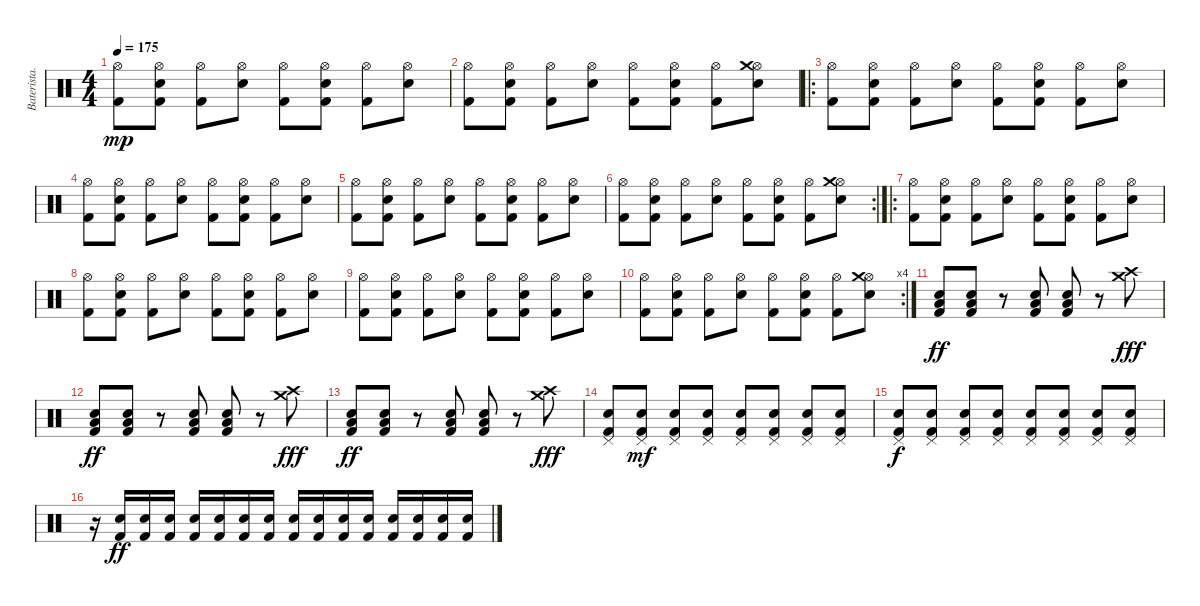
\track ("Baterista." "Baterista.") {instrument percussion}
\staff {score}
\articulation defaults
\ts (4 4)
\tempo 175
\clef neutral
\ks c
("Kick (hit) 2" "Hi-Hat (open)").8{dy mp} ("Kick (hit) 2" "Hi-Hat (open)" "Electric Snare (hit)").8 ("Kick (hit) 2" "Hi-Hat (open)").8 ("Hi-Hat (open)" "Electric Snare (hit)").8 ("Kick (hit) 2" "Hi-Hat (open)").8 ("Kick (hit) 2" "Hi-Hat (open)" "Electric Snare (hit)").8 ("Kick (hit) 2" "Hi-Hat (open)").8 ("Hi-Hat (open)" "Electric Snare (hit)").8 |
("Kick (hit) 2" "Hi-Hat (open)").8 ("Kick (hit) 2" "Hi-Hat (open)" "Electric Snare (hit)").8 ("Kick (hit) 2" "Hi-Hat (open)").8 ("Hi-Hat (open)" "Electric Snare (hit)").8 ("Kick (hit) 2" "Hi-Hat (open)").8 ("Kick (hit) 2" "Hi-Hat (open)" "Electric Snare (hit)").8 ("Kick (hit) 2" "Hi-Hat (open)").8 ("Hi-Hat (open)" "Electric Snare (hit)" "Crash medium (hit)").8 |
\ro
("Kick (hit) 2" "Hi-Hat (open)").8 ("Kick (hit) 2" "Hi-Hat (open)" "Electric Snare (hit)").8 ("Kick (hit) 2" "Hi-Hat (open)").8 ("Hi-Hat (open)" "Electric Snare (hit)").8 ("Kick (hit) 2" "Hi-Hat (open)").8 ("Kick (hit) 2" "Hi-Hat (open)" "Electric Snare (hit)").8 ("Kick (hit) 2" "Hi-Hat (open)").8 ("Hi-Hat (open)" "Electric Snare (hit)").8 |
("Kick (hit) 2" "Hi-Hat (open)").8 ("Kick (hit) 2" "Hi-Hat (open)" "Electric Snare (hit)").8 ("Kick (hit) 2" "Hi-Hat (open)").8 ("Hi-Hat (open)" "Electric Snare (hit)").8 ("Kick (hit) 2" "Hi-Hat (open)").8 ("Kick (hit) 2" "Hi-Hat (open)" "Electric Snare (hit)").8 ("Kick (hit) 2" "Hi-Hat (open)").8 ("Hi-Hat (open)" "Electric Snare (hit)").8 |
("Kick (hit) 2" "Hi-Hat (open)").8 ("Kick (hit) 2" "Hi-Hat (open)" "Electric Snare (hit)").8 ("Kick (hit) 2" "Hi-Hat (open)").8 ("Hi-Hat (open)" "Electric Snare (hit)").8 ("Kick (hit) 2" "Hi-Hat (open)").8 ("Kick (hit) 2" "Hi-Hat (open)" "Electric Snare (hit)").8 ("Kick (hit) 2" "Hi-Hat (open)").8 ("Hi-Hat (open)" "Electric Snare (hit)").8 |
\rc 2
("Kick (hit) 2" "Hi-Hat (open)").8 ("Kick (hit) 2" "Hi-Hat (open)" "Electric Snare (hit)").8 ("Kick (hit) 2" "Hi-Hat (open)").8 ("Hi-Hat (open)" "Electric Snare (hit)").8 ("Kick (hit) 2" "Hi-Hat (open)").8 ("Kick (hit) 2" "Hi-Hat (open)" "Electric Snare (hit)").8 ("Kick (hit) 2" "Hi-Hat (open)").8 ("Hi-Hat (open)" "Electric Snare (hit)" "Crash medium (hit)").8 |
\ro
("Kick (hit) 2" "Hi-Hat (open)").8 ("Kick (hit) 2" "Hi-Hat (open)" "Electric Snare (hit)").8 ("Kick (hit) 2" "Hi-Hat (open)").8 ("Hi-Hat (open)" "Electric Snare (hit)").8 ("Kick (hit) 2" "Hi-Hat (open)").8 ("Kick (hit) 2" "Hi-Hat (open)" "Electric Snare (hit)").8 ("Kick (hit) 2" "Hi-Hat (open)").8 ("Hi-Hat (open)" "Electric Snare (hit)").8 |
("Kick (hit) 2" "Hi-Hat (open)").8 ("Kick (hit) 2" "Hi-Hat (open)" "Electric Snare (hit)").8 ("Kick (hit) 2" "Hi-Hat (open)").8 ("Hi-Hat (open)" "Electric Snare (hit)").8 ("Kick (hit) 2" "Hi-Hat (open)").8 ("Kick (hit) 2" "Hi-Hat (open)" "Electric Snare (hit)").8 ("Kick (hit) 2" "Hi-Hat (open)").8 ("Hi-Hat (open)" "Electric Snare (hit)").8 |
("Kick (hit) 2" "Hi-Hat (open)").8 ("Kick (hit) 2" "Hi-Hat (open)" "Electric Snare (hit)").8 ("Kick (hit) 2" "Hi-Hat (open)").8 ("Hi-Hat (open)" "Electric Snare (hit)").8 ("Kick (hit) 2" "Hi-Hat (open)").8 ("Kick (hit) 2" "Hi-Hat (open)" "Electric Snare (hit)").8 ("Kick (hit) 2" "Hi-Hat (open)").8 ("Hi-Hat (open)" "Electric Snare (hit)").8 |
\rc 4
("Kick (hit) 2" "Hi-Hat (open)").8 ("Kick (hit) 2" "Hi-Hat (open)" "Electric Snare (hit)").8 ("Kick (hit) 2" "Hi-Hat (open)").8 ("Hi-Hat (open)" "Electric Snare (hit)").8 ("Kick (hit) 2" "Hi-Hat (open)").8 ("Kick (hit) 2" "Hi-Hat (open)" "Electric Snare (hit)").8 ("Kick (hit) 2" "Hi-Hat (open)").8 ("Hi-Hat (open)" "Electric Snare (hit)" "Crash medium (hit)").8 |
("Kick (hit) 2" "Electric Snare (hit)" "Low Tom (hit)").8{dy ff} ("Kick (hit) 2" "Electric Snare (hit)" "Low Tom (hit)").8 r.8 ("Kick (hit) 2" "Electric Snare (hit)" "Low Tom (hit)").8 ("Kick (hit) 2" "Electric Snare (hit)" "Low Tom (hit)").8 r.8 ("Crash high (hit)" "Crash medium (hit)").8{dy fff} |
("Kick (hit) 2" "Electric Snare (hit)" "Low Tom (hit)").8{dy ff} ("Kick (hit) 2" "Electric Snare (hit)" "Low Tom (hit)").8 r.8 ("Kick (hit) 2" "Electric Snare (hit)" "Low Tom (hit)").8 ("Kick (hit) 2" "Electric Snare (hit)" "Low Tom (hit)").8 r.8 ("Crash high (hit)" "Crash medium (hit)").8{dy fff} |
("Kick (hit) 2" "Electric Snare (hit)" "Low Tom (hit)").8{dy ff} ("Kick (hit) 2" "Electric Snare (hit)" "Low Tom (hit)").8 r.8 ("Kick (hit) 2" "Electric Snare (hit)" "Low Tom (hit)").8 ("Kick (hit) 2" "Electric Snare (hit)" "Low Tom (hit)").8 r.8 ("Crash high (hit)" "Crash medium (hit)").8{dy fff} |
("Kick (hit) 2" "Pedal Hi-Hat (hit)" "Electric Snare (hit)").8 ("Kick (hit) 2" "Pedal Hi-Hat (hit)" "Electric Snare (hit)").8{dy mf} ("Kick (hit) 2" "Pedal Hi-Hat (hit)" "Electric Snare (hit)").8 ("Kick (hit) 2" "Pedal Hi-Hat (hit)" "Electric Snare (hit)").8 ("Kick (hit) 2" "Pedal Hi-Hat (hit)" "Electric Snare (hit)").8 ("Kick (hit) 2" "Pedal Hi-Hat (hit)" "Electric Snare (hit)").8 ("Kick (hit) 2" "Pedal Hi-Hat (hit)" "Electric Snare (hit)").8 ("Kick (hit) 2" "Pedal Hi-Hat (hit)" "Electric Snare (hit)").8 |
("Kick (hit) 2" "Pedal Hi-Hat (hit)" "Electric Snare (hit)").8{dy f} ("Kick (hit) 2" "Pedal Hi-Hat (hit)" "Electric Snare (hit)").8 ("Kick (hit) 2" "Pedal Hi-Hat (hit)" "Electric Snare (hit)").8 ("Kick (hit) 2" "Pedal Hi-Hat (hit)" "Electric Snare (hit)").8 ("Kick (hit) 2" "Pedal Hi-Hat (hit)" "Electric Snare (hit)").8 ("Kick (hit) 2" "Pedal Hi-Hat (hit)" "Electric Snare (hit)").8 ("Kick (hit) 2" "Pedal Hi-Hat (hit)" "Electric Snare (hit)").8 ("Kick (hit) 2" "Pedal Hi-Hat (hit)" "Electric Snare (hit)").8 |
r.16 ("Kick (hit) 2" "Electric Snare (hit)").16{dy ff} ("Kick (hit) 2" "Electric Snare (hit)").16 ("Kick (hit) 2" "Electric Snare (hit)").16 ("Kick (hit) 2" "Electric Snare (hit)").16 ("Kick (hit) 2" "Electric Snare (hit)").16 ("Kick (hit) 2" "Electric Snare (hit)").16 ("Kick (hit) 2" "Electric Snare (hit)").16 ("Kick (hit) 2" "Electric Snare (hit)").16 ("Kick (hit) 2" "Electric Snare (hit)").16 ("Kick (hit) 2" "Electric Snare (hit)").16 ("Kick (hit) 2" "Electric Snare (hit)").16 ("Kick (hit) 2" "Electric Snare (hit)").16 ("Kick (hit) 2" "Electric Snare (hit)").16 ("Kick (hit) 2" "Electric Snare (hit)").16 ("Kick (hit) 2" "Electric Snare (hit)").16
